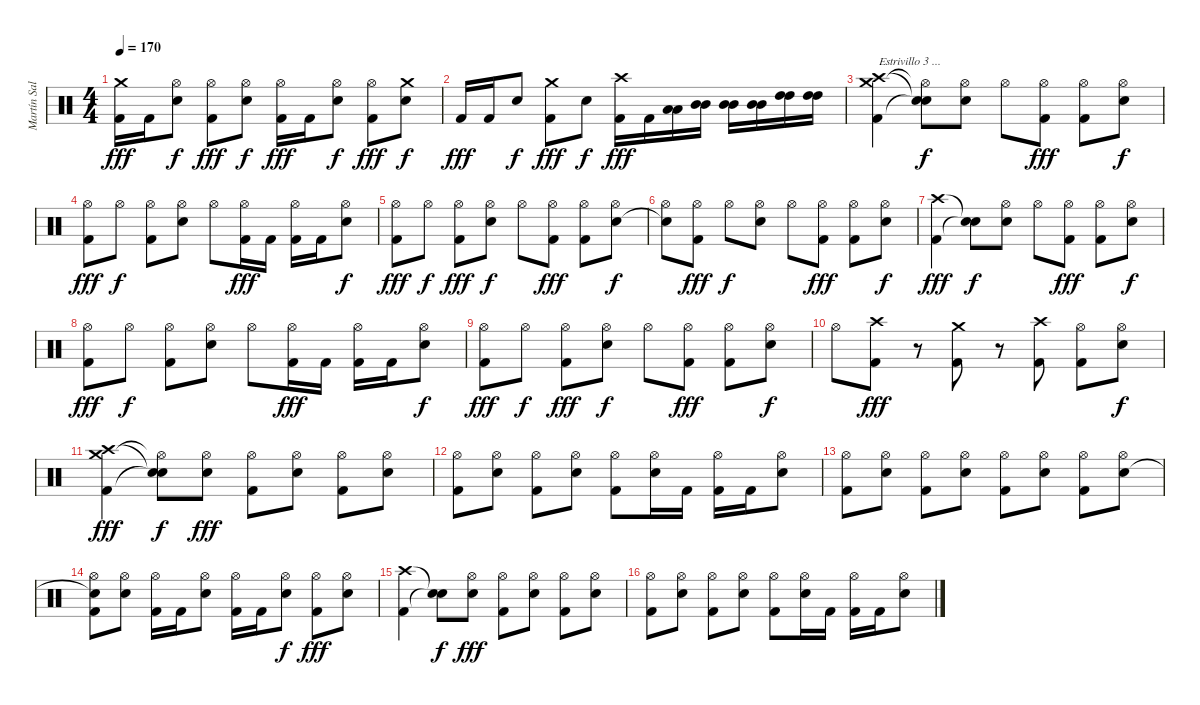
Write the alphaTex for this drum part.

\track ("Martín Salariato" "Martín Sal") {instrument percussion}
\staff {score}
\articulation defaults
\ts (4 4)
\tempo 170
\clef neutral
\ks c
("Crash medium (hit)" "Kick (hit) 2").16{dy fff} "Kick (hit) 2".16 ("Hi-Hat (open)" "Snare (hit) 2").8{dy f} ("Hi-Hat (open)" "Kick (hit) 2").8{dy fff} ("Hi-Hat (open)" "Snare (hit) 2").8{dy f} ("Hi-Hat (open)" "Kick (hit) 2").16{dy fff} "Kick (hit) 2".16 ("Hi-Hat (open)" "Snare (hit) 2").8{dy f} ("Hi-Hat (open)" "Kick (hit) 2").8{dy fff} ("Crash medium (hit)" "Snare (hit) 2").8{dy f} |
"Kick (hit) 2".16{dy fff} "Kick (hit) 2".16 "Snare (hit) 2".8{dy f} ("Crash medium (hit)" "Kick (hit) 2").8{dy fff} "Snare (hit) 2".8{dy f} ("Crash high (hit)" "Kick (hit) 2").16{dy fff} "Kick (hit) 2".16 ("Low Tom (hit)" "Low Tom (hit)").16 ("Mid Tom (hit)" "Mid Tom (hit)").16 ("Mid Tom (hit)" "Mid Tom (hit)").16 ("Mid Tom (hit)" "Mid Tom (hit)").16 ("High Tom (hit)" "High Tom (hit)").16 ("High Tom (hit)" "High Tom (hit)").16 |
("Crash medium (hit)" "Crash high (hit)" "Kick (hit) 2").4{txt "Estrivillo 3 ..."} ("Hi-Hat (open)"{t} "Snare (hit)"{t} "Snare (hit)"{t}).8{dy f} ("Hi-Hat (open)" "Snare (hit) 2").8 "Hi-Hat (open)".8 ("Hi-Hat (open)" "Kick (hit) 2").8{dy fff} ("Hi-Hat (open)" "Kick (hit) 2").8 ("Hi-Hat (open)" "Snare (hit) 2").8{dy f} |
("Hi-Hat (open)" "Kick (hit) 2").8{dy fff} "Hi-Hat (open)".8{dy f} ("Hi-Hat (open)" "Kick (hit) 2").8 ("Hi-Hat (open)" "Snare (hit) 2").8 "Hi-Hat (open)".8 ("Hi-Hat (open)" "Kick (hit) 2").16{dy fff} "Kick (hit) 2".16 ("Hi-Hat (open)" "Kick (hit) 2").16 "Kick (hit) 2".16 ("Hi-Hat (open)" "Snare (hit) 2").8{dy f} |
("Hi-Hat (open)" "Kick (hit) 2").8{dy fff} "Hi-Hat (open)".8{dy f} ("Hi-Hat (open)" "Kick (hit) 2").8{dy fff} ("Hi-Hat (open)" "Snare (hit) 2").8{dy f} "Hi-Hat (open)".8 ("Hi-Hat (open)" "Kick (hit) 2").8{dy fff} ("Hi-Hat (open)" "Kick (hit) 2").8 ("Hi-Hat (open)" "Snare (hit) 2").8{dy f} |
("Hi-Hat (open)" "Snare (hit)"{t}).8 ("Hi-Hat (open)" "Kick (hit) 2").8{dy fff} "Hi-Hat (open)".8{dy f} ("Hi-Hat (open)" "Snare (hit) 2").8 "Hi-Hat (open)".8 ("Hi-Hat (open)" "Kick (hit) 2").8{dy fff} ("Hi-Hat (open)" "Kick (hit) 2").8 ("Hi-Hat (open)" "Snare (hit) 2").8{dy f} |
("Crash high (hit)" "Kick (hit) 2").4{dy fff} ("Snare (hit)"{t} "Snare (hit)"{t}).8{dy f} ("Hi-Hat (open)" "Snare (hit) 2").8 "Hi-Hat (open)".8 ("Hi-Hat (open)" "Kick (hit) 2").8{dy fff} ("Hi-Hat (open)" "Kick (hit) 2").8 ("Hi-Hat (open)" "Snare (hit) 2").8{dy f} |
("Hi-Hat (open)" "Kick (hit) 2").8{dy fff} "Hi-Hat (open)".8{dy f} ("Hi-Hat (open)" "Kick (hit) 2").8 ("Hi-Hat (open)" "Snare (hit) 2").8 "Hi-Hat (open)".8 ("Hi-Hat (open)" "Kick (hit) 2").16{dy fff} "Kick (hit) 2".16 ("Hi-Hat (open)" "Kick (hit) 2").16 "Kick (hit) 2".16 ("Hi-Hat (open)" "Snare (hit) 2").8{dy f} |
("Hi-Hat (open)" "Kick (hit) 2").8{dy fff} "Hi-Hat (open)".8{dy f} ("Hi-Hat (open)" "Kick (hit) 2").8{dy fff} ("Hi-Hat (open)" "Snare (hit) 2").8{dy f} "Hi-Hat (open)".8 ("Hi-Hat (open)" "Kick (hit) 2").8{dy fff} ("Hi-Hat (open)" "Kick (hit) 2").8 ("Hi-Hat (open)" "Snare (hit) 2").8{dy f} |
"Hi-Hat (open)".8 ("Crash high (hit)" "Kick (hit) 2").8{dy fff} r.8 ("Crash medium (hit)" "Kick (hit) 2").8 r.8 ("Crash high (hit)" "Kick (hit) 2").8 ("Hi-Hat (open)" "Kick (hit) 2").8 ("Hi-Hat (open)" "Snare (hit) 2").8{dy f} |
("Crash medium (hit)" "Crash high (hit)" "Kick (hit) 2").4{dy fff} ("Hi-Hat (open)"{t} "Snare (hit)"{t} "Snare (hit)"{t}).8{dy f} ("Hi-Hat (open)" "Snare (hit) 2").8{dy fff} ("Hi-Hat (open)" "Kick (hit) 2").8 ("Hi-Hat (open)" "Snare (hit) 2").8 ("Hi-Hat (open)" "Kick (hit) 2").8 ("Hi-Hat (open)" "Snare (hit) 2").8 |
("Hi-Hat (open)" "Kick (hit) 2").8 ("Hi-Hat (open)" "Snare (hit) 2").8 ("Hi-Hat (open)" "Kick (hit) 2").8 ("Hi-Hat (open)" "Snare (hit) 2").8 ("Hi-Hat (open)" "Kick (hit) 2").8 ("Hi-Hat (open)" "Snare (hit) 2").16 "Kick (hit) 2".16 ("Hi-Hat (open)" "Kick (hit) 2").16 "Kick (hit) 2".16 ("Hi-Hat (open)" "Snare (hit) 2").8 |
("Hi-Hat (open)" "Kick (hit) 2").8 ("Hi-Hat (open)" "Snare (hit) 2").8 ("Hi-Hat (open)" "Kick (hit) 2").8 ("Hi-Hat (open)" "Snare (hit) 2").8 ("Hi-Hat (open)" "Kick (hit) 2").8 ("Hi-Hat (open)" "Snare (hit) 2").8 ("Hi-Hat (open)" "Kick (hit) 2").8 ("Hi-Hat (open)" "Snare (hit) 2").8 |
("Hi-Hat (open)" "Snare (hit)"{t} "Kick (hit) 2").8 ("Hi-Hat (open)" "Snare (hit) 2").8 ("Hi-Hat (open)" "Kick (hit) 2").16 "Kick (hit) 2".16 ("Hi-Hat (open)" "Snare (hit) 2").8 ("Hi-Hat (open)" "Kick (hit) 2").16 "Kick (hit) 2".16 ("Hi-Hat (open)" "Snare (hit) 2").8{dy f} ("Hi-Hat (open)" "Kick (hit) 2").8{dy fff} ("Hi-Hat (open)" "Snare (hit) 2").8 |
("Crash high (hit)" "Kick (hit) 2").4 ("Snare (hit)"{t} "Snare (hit)"{t}).8{dy f} ("Hi-Hat (open)" "Snare (hit) 2").8{dy fff} ("Hi-Hat (open)" "Kick (hit) 2").8 ("Hi-Hat (open)" "Snare (hit) 2").8 ("Hi-Hat (open)" "Kick (hit) 2").8 ("Hi-Hat (open)" "Snare (hit) 2").8 |
("Hi-Hat (open)" "Kick (hit) 2").8 ("Hi-Hat (open)" "Snare (hit) 2").8 ("Hi-Hat (open)" "Kick (hit) 2").8 ("Hi-Hat (open)" "Snare (hit) 2").8 ("Hi-Hat (open)" "Kick (hit) 2").8 ("Hi-Hat (open)" "Snare (hit) 2").16 "Kick (hit) 2".16 ("Hi-Hat (open)" "Kick (hit) 2").16 "Kick (hit) 2".16 ("Hi-Hat (open)" "Snare (hit) 2").8
